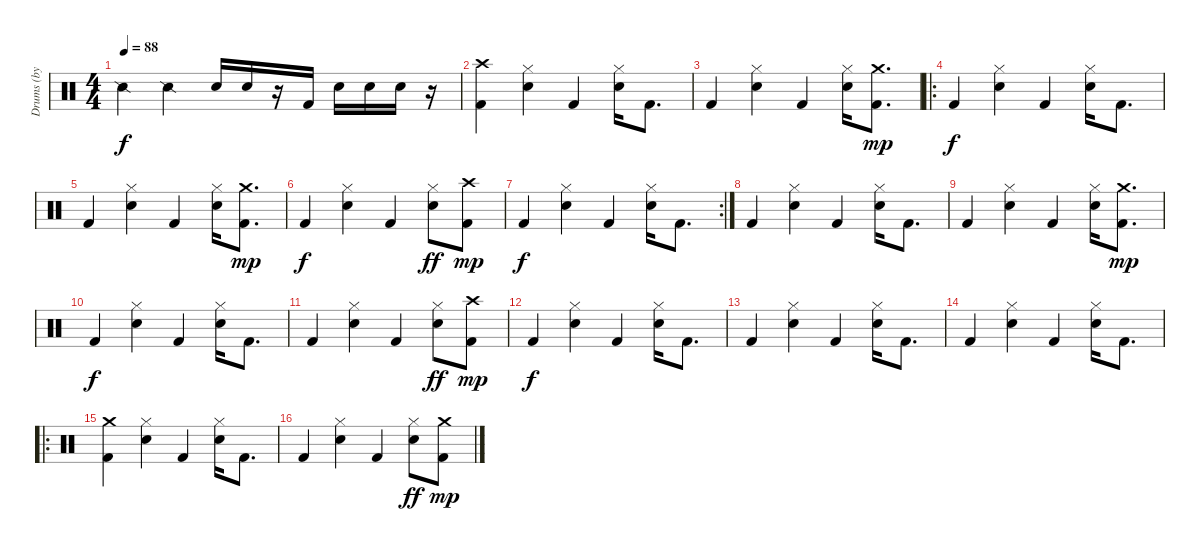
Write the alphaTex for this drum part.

\track ("Drums (by Rim)" "Drums (by ") {instrument percussion}
\staff {score}
\articulation defaults
\ts (4 4)
\tempo 88
\clef neutral
\ks c "Snare (side stick) 2".4{dy f} "Snare (side stick) 2".4 "Snare (hit) 2".16 "Snare (hit) 2".16
r.16 "Kick (hit) 2".16 "Snare (hit) 2".16 "Snare (hit) 2".16 "Snare (hit) 2".16 r.16 |
("Kick (hit) 2" "Crash high (hit)").4 ("Hi-Hat (closed)" "Snare (hit) 2").4 "Kick (hit) 2".4 ("Hi-Hat (closed)" "Snare (hit) 2").16 "Kick (hit) 2".8{d} |
"Kick (hit) 2".4 ("Hi-Hat (closed)" "Snare (hit) 2").4 "Kick (hit) 2".4 ("Hi-Hat (closed)" "Snare (hit) 2").16 ("Kick (hit) 2" "Crash medium (hit)").8{d dy mp} |
\ro "Kick (hit) 2".4{dy f}
("Hi-Hat (closed)" "Snare (hit) 2").4 "Kick (hit) 2".4 ("Hi-Hat (closed)" "Snare (hit) 2").16 "Kick (hit) 2".8{d} |
"Kick (hit) 2".4 ("Hi-Hat (closed)" "Snare (hit) 2").4 "Kick (hit) 2".4 ("Hi-Hat (closed)" "Snare (hit) 2").16 ("Kick (hit) 2" "Crash medium (hit)").8{d dy mp} |
"Kick (hit) 2".4{dy f} ("Hi-Hat (closed)" "Snare (hit) 2").4 "Kick (hit) 2".4 ("Hi-Hat (closed)" "Snare (hit) 2").8{dy ff} ("Kick (hit) 2" "Crash high (hit)").8{dy mp} |
\rc 2 "Kick (hit) 2".4{dy f}
("Hi-Hat (closed)" "Snare (hit) 2").4 "Kick (hit) 2".4 ("Hi-Hat (closed)" "Snare (hit) 2").16 "Kick (hit) 2".8{d} |
"Kick (hit) 2".4 ("Hi-Hat (closed)" "Snare (hit) 2").4 "Kick (hit) 2".4 ("Hi-Hat (closed)" "Snare (hit) 2").16 "Kick (hit) 2".8{d} |
"Kick (hit) 2".4 ("Hi-Hat (closed)" "Snare (hit) 2").4 "Kick (hit) 2".4 ("Hi-Hat (closed)" "Snare (hit) 2").16 ("Kick (hit) 2" "Crash medium (hit)").8{d dy mp} |
"Kick (hit) 2".4{dy f} ("Hi-Hat (closed)" "Snare (hit) 2").4 "Kick (hit) 2".4 ("Hi-Hat (closed)" "Snare (hit) 2").16 "Kick (hit) 2".8{d} |
"Kick (hit) 2".4 ("Hi-Hat (closed)" "Snare (hit) 2").4 "Kick (hit) 2".4 ("Hi-Hat (closed)" "Snare (hit) 2").8{dy ff} ("Kick (hit) 2" "Crash high (hit)").8{dy mp} |
"Kick (hit) 2".4{dy f} ("Hi-Hat (closed)" "Snare (hit) 2").4 "Kick (hit) 2".4 ("Hi-Hat (closed)" "Snare (hit) 2").16 "Kick (hit) 2".8{d} |
"Kick (hit) 2".4 ("Hi-Hat (closed)" "Snare (hit) 2").4 "Kick (hit) 2".4 ("Hi-Hat (closed)" "Snare (hit) 2").16 "Kick (hit) 2".8{d} |
"Kick (hit) 2".4 ("Hi-Hat (closed)" "Snare (hit) 2").4 "Kick (hit) 2".4 ("Hi-Hat (closed)" "Snare (hit) 2").16 "Kick (hit) 2".8{d} |
\ro
("Kick (hit) 2" "Crash medium (hit)").4 ("Hi-Hat (closed)" "Snare (hit) 2").4 "Kick (hit) 2".4 ("Hi-Hat (closed)" "Snare (hit) 2").16 "Kick (hit) 2".8{d} |
"Kick (hit) 2".4 ("Hi-Hat (closed)" "Snare (hit) 2").4 "Kick (hit) 2".4 ("Hi-Hat (closed)" "Snare (hit) 2").8{dy ff} ("Kick (hit) 2" "Crash medium (hit)").8{dy mp}
